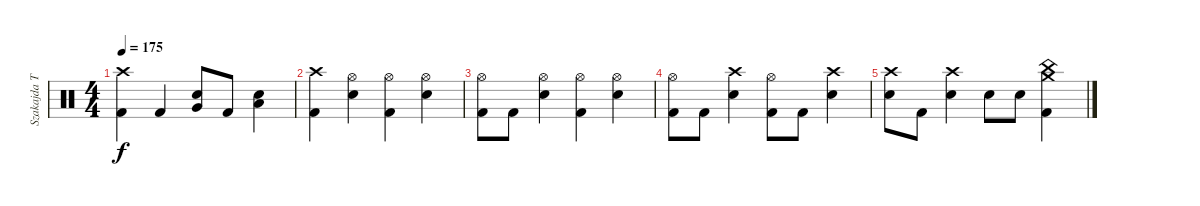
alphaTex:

\track ("Szakajda Tibi" "Szakajda T") {instrument percussion}
\staff {score}
\articulation defaults
\ts (4 4)
\tempo 175
\clef neutral
\ks c
("Crash high (hit)" "Kick (hit) 2").4{dy f} "Kick (hit) 2".4 ("Very Low Tom (hit)" "Snare (hit) 2").8 "Kick (hit) 2".8 ("Low Floor Tom (hit)" "Snare (hit) 2").4 |
("Crash high (hit)" "Kick (hit) 2").4 ("Hi-Hat (open)" "Snare (hit) 2").4 ("Hi-Hat (open)" "Kick (hit) 2").4 ("Hi-Hat (open)" "Snare (hit) 2").4 |
("Hi-Hat (open)" "Kick (hit) 2").8 "Kick (hit) 2".8 ("Hi-Hat (open)" "Snare (hit) 2").4 ("Hi-Hat (open)" "Kick (hit) 2").4 ("Hi-Hat (open)" "Snare (hit) 2").4 |
("Hi-Hat (open)" "Kick (hit) 2").8 "Kick (hit) 2".8 ("Crash high (hit)" "Snare (hit) 2").4 ("Hi-Hat (open)" "Kick (hit) 2").8 "Kick (hit) 2".8 ("Crash high (hit)" "Snare (hit) 2").4 |
("Crash high (hit)" "Snare (hit) 2").8 "Kick (hit) 2".8 ("Crash high (hit)" "Snare (hit) 2").4 "Snare (hit) 2".8 "Snare (hit) 2".8 ("Crash medium (hit)" "China (hit)" "Kick (hit) 2").4
